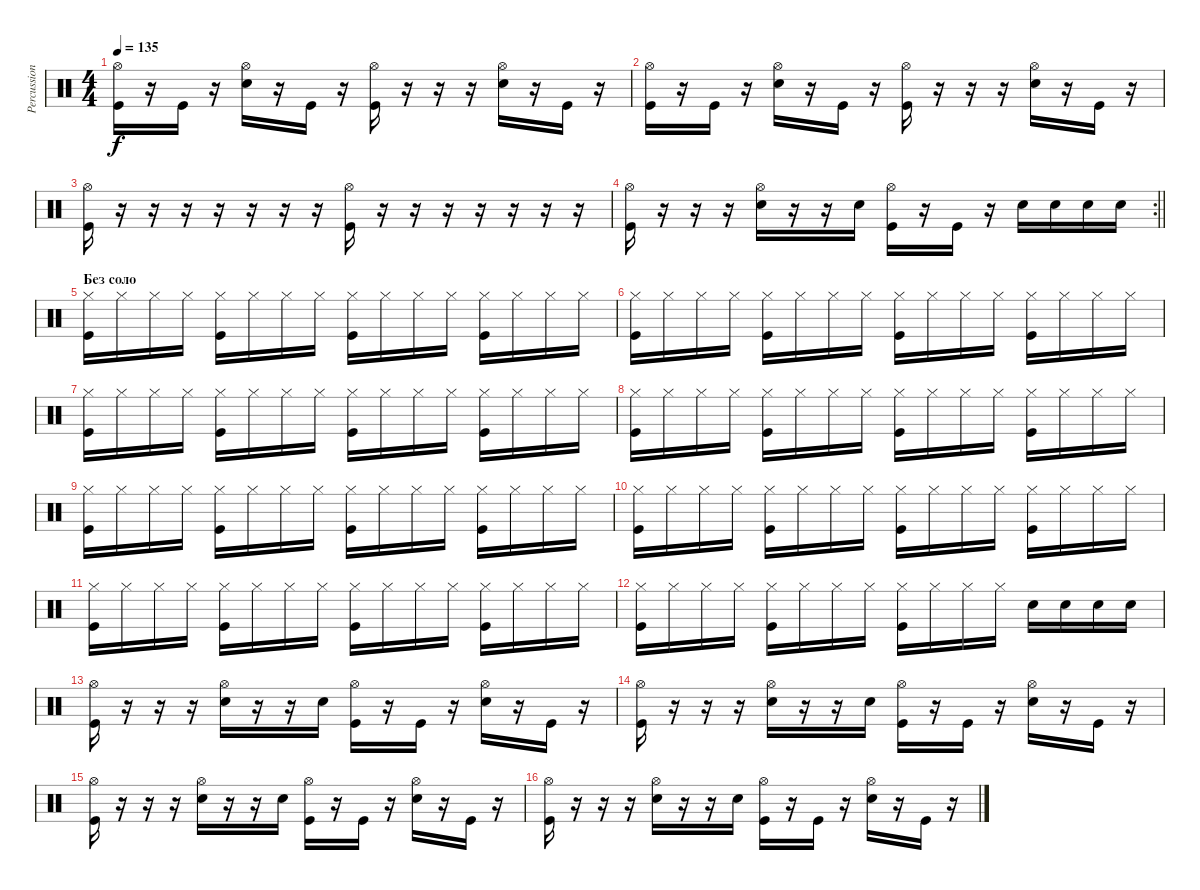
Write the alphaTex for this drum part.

\track ("Percussion" "Percussion") {instrument percussion}
\staff {score}
\articulation defaults
\ts (4 4)
\tempo 135
\clef neutral
\ks c
("Hi-Hat (open)" "Kick (hit)").16{dy f} r.16 "Kick (hit)".16 r.16 ("Hi-Hat (open)" "Snare (hit) 2").16 r.16 "Kick (hit)".16 r.16 ("Hi-Hat (open)" "Kick (hit)").16 r.16 r.16 r.16 ("Hi-Hat (open)" "Snare (hit) 2").16 r.16 "Kick (hit)".16 r.16 |
("Hi-Hat (open)" "Kick (hit)").16 r.16 "Kick (hit)".16 r.16 ("Hi-Hat (open)" "Snare (hit) 2").16 r.16 "Kick (hit)".16 r.16 ("Hi-Hat (open)" "Kick (hit)").16 r.16 r.16 r.16 ("Hi-Hat (open)" "Snare (hit) 2").16 r.16 "Kick (hit)".16 r.16 |
("Hi-Hat (open)" "Kick (hit)").16 r.16 r.16 r.16 r.16 r.16 r.16 r.16 ("Hi-Hat (open)" "Kick (hit)").16 r.16 r.16 r.16 r.16 r.16 r.16 r.16 |
\rc 2
\barLineRight lightlight
("Hi-Hat (open)" "Kick (hit)").16 r.16 r.16 r.16 ("Hi-Hat (open)" "Snare (hit) 2").16 r.16 r.16 "Snare (hit) 2".16 ("Hi-Hat (open)" "Kick (hit)").16 r.16 "Kick (hit)".16 r.16 "Snare (hit) 2".16 "Snare (hit) 2".16 "Snare (hit) 2".16 "Snare (hit) 2".16 |
\section ("" "Без соло")
("Hi-Hat (closed)" "Kick (hit)").16 "Hi-Hat (closed)".16 "Hi-Hat (closed)".16 "Hi-Hat (closed)".16 ("Hi-Hat (closed)" "Kick (hit)").16 "Hi-Hat (closed)".16 "Hi-Hat (closed)".16 "Hi-Hat (closed)".16 ("Hi-Hat (closed)" "Kick (hit)").16 "Hi-Hat (closed)".16 "Hi-Hat (closed)".16 "Hi-Hat (closed)".16 ("Hi-Hat (closed)" "Kick (hit)").16 "Hi-Hat (closed)".16 "Hi-Hat (closed)".16 "Hi-Hat (closed)".16 |
("Hi-Hat (closed)" "Kick (hit)").16 "Hi-Hat (closed)".16 "Hi-Hat (closed)".16 "Hi-Hat (closed)".16 ("Hi-Hat (closed)" "Kick (hit)").16 "Hi-Hat (closed)".16 "Hi-Hat (closed)".16 "Hi-Hat (closed)".16 ("Hi-Hat (closed)" "Kick (hit)").16 "Hi-Hat (closed)".16 "Hi-Hat (closed)".16 "Hi-Hat (closed)".16 ("Hi-Hat (closed)" "Kick (hit)").16 "Hi-Hat (closed)".16 "Hi-Hat (closed)".16 "Hi-Hat (closed)".16 |
("Hi-Hat (closed)" "Kick (hit)").16 "Hi-Hat (closed)".16 "Hi-Hat (closed)".16 "Hi-Hat (closed)".16 ("Hi-Hat (closed)" "Kick (hit)").16 "Hi-Hat (closed)".16 "Hi-Hat (closed)".16 "Hi-Hat (closed)".16 ("Hi-Hat (closed)" "Kick (hit)").16 "Hi-Hat (closed)".16 "Hi-Hat (closed)".16 "Hi-Hat (closed)".16 ("Hi-Hat (closed)" "Kick (hit)").16 "Hi-Hat (closed)".16 "Hi-Hat (closed)".16 "Hi-Hat (closed)".16 |
("Hi-Hat (closed)" "Kick (hit)").16 "Hi-Hat (closed)".16 "Hi-Hat (closed)".16 "Hi-Hat (closed)".16 ("Hi-Hat (closed)" "Kick (hit)").16 "Hi-Hat (closed)".16 "Hi-Hat (closed)".16 "Hi-Hat (closed)".16 ("Hi-Hat (closed)" "Kick (hit)").16 "Hi-Hat (closed)".16 "Hi-Hat (closed)".16 "Hi-Hat (closed)".16 ("Hi-Hat (closed)" "Kick (hit)").16 "Hi-Hat (closed)".16 "Hi-Hat (closed)".16 "Hi-Hat (closed)".16 |
("Hi-Hat (closed)" "Kick (hit)").16 "Hi-Hat (closed)".16 "Hi-Hat (closed)".16 "Hi-Hat (closed)".16 ("Hi-Hat (closed)" "Kick (hit)").16 "Hi-Hat (closed)".16 "Hi-Hat (closed)".16 "Hi-Hat (closed)".16 ("Hi-Hat (closed)" "Kick (hit)").16 "Hi-Hat (closed)".16 "Hi-Hat (closed)".16 "Hi-Hat (closed)".16 ("Hi-Hat (closed)" "Kick (hit)").16 "Hi-Hat (closed)".16 "Hi-Hat (closed)".16 "Hi-Hat (closed)".16 |
("Hi-Hat (closed)" "Kick (hit)").16 "Hi-Hat (closed)".16 "Hi-Hat (closed)".16 "Hi-Hat (closed)".16 ("Hi-Hat (closed)" "Kick (hit)").16 "Hi-Hat (closed)".16 "Hi-Hat (closed)".16 "Hi-Hat (closed)".16 ("Hi-Hat (closed)" "Kick (hit)").16 "Hi-Hat (closed)".16 "Hi-Hat (closed)".16 "Hi-Hat (closed)".16 ("Hi-Hat (closed)" "Kick (hit)").16 "Hi-Hat (closed)".16 "Hi-Hat (closed)".16 "Hi-Hat (closed)".16 |
("Hi-Hat (closed)" "Kick (hit)").16 "Hi-Hat (closed)".16 "Hi-Hat (closed)".16 "Hi-Hat (closed)".16 ("Hi-Hat (closed)" "Kick (hit)").16 "Hi-Hat (closed)".16 "Hi-Hat (closed)".16 "Hi-Hat (closed)".16 ("Hi-Hat (closed)" "Kick (hit)").16 "Hi-Hat (closed)".16 "Hi-Hat (closed)".16 "Hi-Hat (closed)".16 ("Hi-Hat (closed)" "Kick (hit)").16 "Hi-Hat (closed)".16 "Hi-Hat (closed)".16 "Hi-Hat (closed)".16 |
("Hi-Hat (closed)" "Kick (hit)").16 "Hi-Hat (closed)".16 "Hi-Hat (closed)".16 "Hi-Hat (closed)".16 ("Hi-Hat (closed)" "Kick (hit)").16 "Hi-Hat (closed)".16 "Hi-Hat (closed)".16 "Hi-Hat (closed)".16 ("Hi-Hat (closed)" "Kick (hit)").16 "Hi-Hat (closed)".16 "Hi-Hat (closed)".16 "Hi-Hat (closed)".16 "Snare (hit) 2".16 "Snare (hit) 2".16 "Snare (hit) 2".16 "Snare (hit) 2".16 |
("Hi-Hat (open)" "Kick (hit)").16 r.16 r.16 r.16 ("Hi-Hat (open)" "Snare (hit) 2").16 r.16 r.16 "Snare (hit) 2".16 ("Hi-Hat (open)" "Kick (hit)").16 r.16 "Kick (hit)".16 r.16 ("Hi-Hat (open)" "Snare (hit) 2").16 r.16 "Kick (hit)".16 r.16 |
("Hi-Hat (open)" "Kick (hit)").16 r.16 r.16 r.16 ("Hi-Hat (open)" "Snare (hit) 2").16 r.16 r.16 "Snare (hit) 2".16 ("Hi-Hat (open)" "Kick (hit)").16 r.16 "Kick (hit)".16 r.16 ("Hi-Hat (open)" "Snare (hit) 2").16 r.16 "Kick (hit)".16 r.16 |
("Hi-Hat (open)" "Kick (hit)").16 r.16 r.16 r.16 ("Hi-Hat (open)" "Snare (hit) 2").16 r.16 r.16 "Snare (hit) 2".16 ("Hi-Hat (open)" "Kick (hit)").16 r.16 "Kick (hit)".16 r.16 ("Hi-Hat (open)" "Snare (hit) 2").16 r.16 "Kick (hit)".16 r.16 |
("Hi-Hat (open)" "Kick (hit)").16 r.16 r.16 r.16 ("Hi-Hat (open)" "Snare (hit) 2").16 r.16 r.16 "Snare (hit) 2".16 ("Hi-Hat (open)" "Kick (hit)").16 r.16 "Kick (hit)".16 r.16 ("Hi-Hat (open)" "Snare (hit) 2").16 r.16 "Kick (hit)".16 r.16
